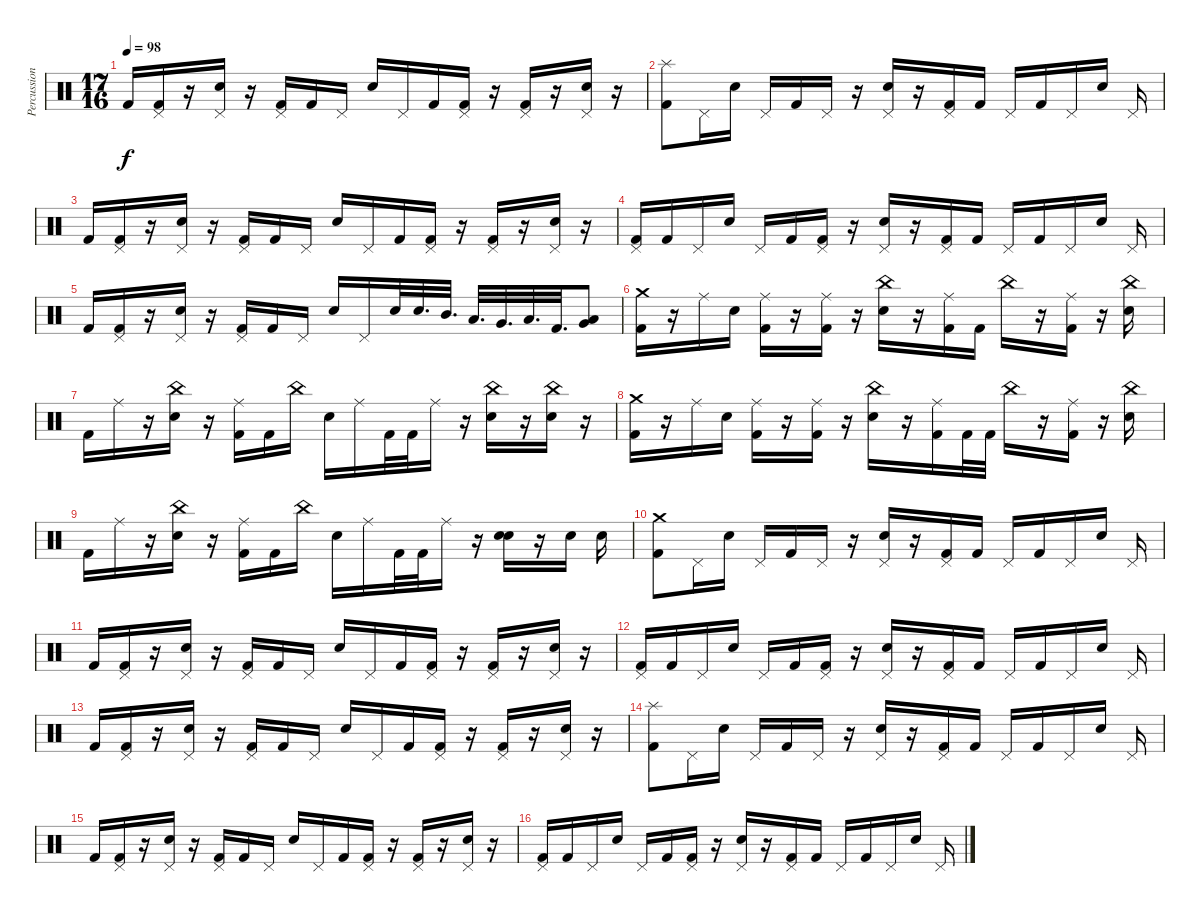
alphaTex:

\track ("Percussion" "Percussion") {instrument percussion}
\staff {score}
\articulation defaults
\ts (17 16)
\tempo 98
\clef neutral
\ks c "Kick (hit) 2".16{dy f}
("Pedal Hi-Hat (hit)" "Kick (hit) 2").16 r.16 ("Pedal Hi-Hat (hit)" "Electric Snare (hit)").16 r.16 ("Pedal Hi-Hat (hit)" "Kick (hit) 2").16 "Kick (hit) 2".16 "Pedal Hi-Hat (hit)".16 "Electric Snare (hit)".16 "Pedal Hi-Hat (hit)".16 "Kick (hit) 2".16 ("Pedal Hi-Hat (hit)" "Kick (hit) 2").16 r.16 ("Pedal Hi-Hat (hit)" "Kick (hit) 2").16 r.16 ("Pedal Hi-Hat (hit)" "Electric Snare (hit)").16 r.16 |
("Splash (hit)" "Kick (hit) 2").8 "Pedal Hi-Hat (hit)".16 "Electric Snare (hit)".16 "Pedal Hi-Hat (hit)".16 "Kick (hit) 2".16 "Pedal Hi-Hat (hit)".16 r.16 ("Pedal Hi-Hat (hit)" "Electric Snare (hit)").16 r.16 ("Pedal Hi-Hat (hit)" "Kick (hit) 2").16 "Kick (hit) 2".16 "Pedal Hi-Hat (hit)".16 "Kick (hit) 2".16 "Pedal Hi-Hat (hit)".16 "Electric Snare (hit)".16 "Pedal Hi-Hat (hit)".16 |
"Kick (hit) 2".16 ("Pedal Hi-Hat (hit)" "Kick (hit) 2").16 r.16 ("Pedal Hi-Hat (hit)" "Electric Snare (hit)").16 r.16 ("Pedal Hi-Hat (hit)" "Kick (hit) 2").16 "Kick (hit) 2".16 "Pedal Hi-Hat (hit)".16 "Electric Snare (hit)".16 "Pedal Hi-Hat (hit)".16 "Kick (hit) 2".16 ("Pedal Hi-Hat (hit)" "Kick (hit) 2").16 r.16 ("Pedal Hi-Hat (hit)" "Kick (hit) 2").16 r.16 ("Pedal Hi-Hat (hit)" "Electric Snare (hit)").16 r.16 |
("Pedal Hi-Hat (hit)" "Kick (hit) 2").16 "Kick (hit) 2".16 "Pedal Hi-Hat (hit)".16 "Electric Snare (hit)".16 "Pedal Hi-Hat (hit)".16 "Kick (hit) 2".16 ("Pedal Hi-Hat (hit)" "Kick (hit) 2").16 r.16 ("Pedal Hi-Hat (hit)" "Electric Snare (hit)").16 r.16 ("Pedal Hi-Hat (hit)" "Kick (hit) 2").16 "Kick (hit) 2".16 "Pedal Hi-Hat (hit)".16 "Kick (hit) 2".16 "Pedal Hi-Hat (hit)".16 "Electric Snare (hit)".16 "Pedal Hi-Hat (hit)".16 |
"Kick (hit) 2".16 ("Pedal Hi-Hat (hit)" "Kick (hit) 2").16 r.16 ("Pedal Hi-Hat (hit)" "Electric Snare (hit)").16 r.16 ("Pedal Hi-Hat (hit)" "Kick (hit) 2").16 "Kick (hit) 2".16 "Pedal Hi-Hat (hit)".16 "Electric Snare (hit)".16 "Pedal Hi-Hat (hit)".16 "Electric Snare (hit)".32 "Electric Snare (hit)".32{d} "Mid Tom (hit)".32{d} "Low Tom (hit)".32{d} "Very Low Tom (hit)".32{d} "Low Floor Tom (hit)".32{d} "Kick (hit) 2".32{d} ("Very Low Tom (hit)" "Low Floor Tom (hit)").8 |
("Crash medium (hit)" "Kick (hit) 2").16 r.16 "Ride (middle)".16 "Electric Snare (hit)".16 ("Ride (middle)" "Kick (hit) 2").16 r.16 ("Ride (middle)" "Kick (hit) 2").16 r.16 ("China (hit)" "Electric Snare (hit)").16 r.16 ("Ride (middle)" "Kick (hit) 2").16 "Kick (hit) 2".16 "China (hit)".16 r.16 ("Ride (middle)" "Kick (hit) 2").16 r.16 ("China (hit)" "Electric Snare (hit)").16 |
"Kick (hit) 2".16 "Ride (middle)".16 r.16 ("China (hit)" "Electric Snare (hit)").16 r.16 ("Ride (middle)" "Kick (hit) 2").16 "Kick (hit) 2".16 "China (hit)".16 "Electric Snare (hit)".16 "Ride (middle)".16 "Kick (hit) 2".32 "Kick (hit) 2".32 "Ride (middle)".16 r.16 ("China (hit)" "Electric Snare (hit)").16 r.16 ("China (hit)" "Electric Snare (hit)").16 r.16 |
("Crash medium (hit)" "Kick (hit) 2").16 r.16 "Ride (middle)".16 "Electric Snare (hit)".16 ("Ride (middle)" "Kick (hit) 2").16 r.16 ("Ride (middle)" "Kick (hit) 2").16 r.16 ("China (hit)" "Electric Snare (hit)").16 r.16 ("Ride (middle)" "Kick (hit) 2").16 "Kick (hit) 2".32 "Kick (hit) 2".32 "China (hit)".16 r.16 ("Ride (middle)" "Kick (hit) 2").16 r.16 ("China (hit)" "Electric Snare (hit)").16 |
"Kick (hit) 2".16 "Ride (middle)".16 r.16 ("China (hit)" "Electric Snare (hit)").16 r.16 ("Ride (middle)" "Kick (hit) 2").16 "Kick (hit) 2".16 "China (hit)".16 "Electric Snare (hit)".16 "Ride (middle)".16 "Kick (hit) 2".32 "Kick (hit) 2".32 "Ride (middle)".16 r.16 ("Electric Snare (hit)" "Electric Snare (hit)").16 r.16 "Electric Snare (hit)".16 "Electric Snare (hit)".16 |
("Crash medium (hit)" "Kick (hit) 2").8 "Pedal Hi-Hat (hit)".16 "Electric Snare (hit)".16 "Pedal Hi-Hat (hit)".16 "Kick (hit) 2".16 "Pedal Hi-Hat (hit)".16 r.16 ("Pedal Hi-Hat (hit)" "Electric Snare (hit)").16 r.16 ("Pedal Hi-Hat (hit)" "Kick (hit) 2").16 "Kick (hit) 2".16 "Pedal Hi-Hat (hit)".16 "Kick (hit) 2".16 "Pedal Hi-Hat (hit)".16 "Electric Snare (hit)".16 "Pedal Hi-Hat (hit)".16 |
"Kick (hit) 2".16 ("Pedal Hi-Hat (hit)" "Kick (hit) 2").16 r.16 ("Pedal Hi-Hat (hit)" "Electric Snare (hit)").16 r.16 ("Pedal Hi-Hat (hit)" "Kick (hit) 2").16 "Kick (hit) 2".16 "Pedal Hi-Hat (hit)".16 "Electric Snare (hit)".16 "Pedal Hi-Hat (hit)".16 "Kick (hit) 2".16 ("Pedal Hi-Hat (hit)" "Kick (hit) 2").16 r.16 ("Pedal Hi-Hat (hit)" "Kick (hit) 2").16 r.16 ("Pedal Hi-Hat (hit)" "Electric Snare (hit)").16 r.16 |
("Pedal Hi-Hat (hit)" "Kick (hit) 2").16 "Kick (hit) 2".16 "Pedal Hi-Hat (hit)".16 "Electric Snare (hit)".16 "Pedal Hi-Hat (hit)".16 "Kick (hit) 2".16 ("Pedal Hi-Hat (hit)" "Kick (hit) 2").16 r.16 ("Pedal Hi-Hat (hit)" "Electric Snare (hit)").16 r.16 ("Pedal Hi-Hat (hit)" "Kick (hit) 2").16 "Kick (hit) 2".16 "Pedal Hi-Hat (hit)".16 "Kick (hit) 2".16 "Pedal Hi-Hat (hit)".16 "Electric Snare (hit)".16 "Pedal Hi-Hat (hit)".16 |
"Kick (hit) 2".16 ("Pedal Hi-Hat (hit)" "Kick (hit) 2").16 r.16 ("Pedal Hi-Hat (hit)" "Electric Snare (hit)").16 r.16 ("Pedal Hi-Hat (hit)" "Kick (hit) 2").16 "Kick (hit) 2".16 "Pedal Hi-Hat (hit)".16 "Electric Snare (hit)".16 "Pedal Hi-Hat (hit)".16 "Kick (hit) 2".16 ("Pedal Hi-Hat (hit)" "Kick (hit) 2").16 r.16 ("Pedal Hi-Hat (hit)" "Kick (hit) 2").16 r.16 ("Pedal Hi-Hat (hit)" "Electric Snare (hit)").16 r.16 |
("Splash (hit)" "Kick (hit) 2").8 "Pedal Hi-Hat (hit)".16 "Electric Snare (hit)".16 "Pedal Hi-Hat (hit)".16 "Kick (hit) 2".16 "Pedal Hi-Hat (hit)".16 r.16 ("Pedal Hi-Hat (hit)" "Electric Snare (hit)").16 r.16 ("Pedal Hi-Hat (hit)" "Kick (hit) 2").16 "Kick (hit) 2".16 "Pedal Hi-Hat (hit)".16 "Kick (hit) 2".16 "Pedal Hi-Hat (hit)".16 "Electric Snare (hit)".16 "Pedal Hi-Hat (hit)".16 |
"Kick (hit) 2".16 ("Pedal Hi-Hat (hit)" "Kick (hit) 2").16 r.16 ("Pedal Hi-Hat (hit)" "Electric Snare (hit)").16 r.16 ("Pedal Hi-Hat (hit)" "Kick (hit) 2").16 "Kick (hit) 2".16 "Pedal Hi-Hat (hit)".16 "Electric Snare (hit)".16 "Pedal Hi-Hat (hit)".16 "Kick (hit) 2".16 ("Pedal Hi-Hat (hit)" "Kick (hit) 2").16 r.16 ("Pedal Hi-Hat (hit)" "Kick (hit) 2").16 r.16 ("Pedal Hi-Hat (hit)" "Electric Snare (hit)").16 r.16 |
("Pedal Hi-Hat (hit)" "Kick (hit) 2").16 "Kick (hit) 2".16 "Pedal Hi-Hat (hit)".16 "Electric Snare (hit)".16 "Pedal Hi-Hat (hit)".16 "Kick (hit) 2".16 ("Pedal Hi-Hat (hit)" "Kick (hit) 2").16 r.16 ("Pedal Hi-Hat (hit)" "Electric Snare (hit)").16 r.16 ("Pedal Hi-Hat (hit)" "Kick (hit) 2").16 "Kick (hit) 2".16 "Pedal Hi-Hat (hit)".16 "Kick (hit) 2".16 "Pedal Hi-Hat (hit)".16 "Electric Snare (hit)".16 "Pedal Hi-Hat (hit)".16
